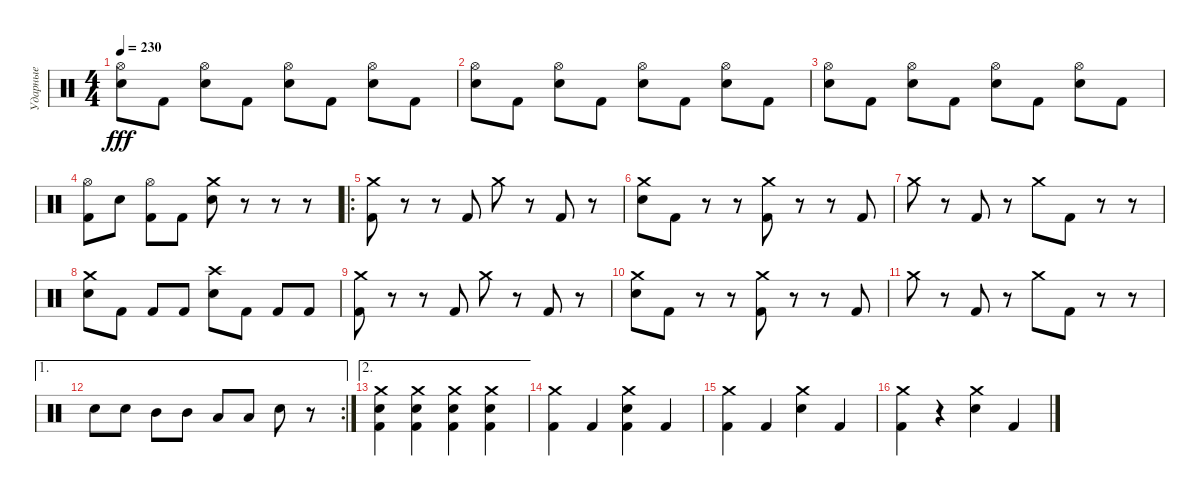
\track ("Ударные" "Ударные") {instrument percussion}
\staff {score}
\articulation defaults
\ts (4 4)
\tempo 230
\clef neutral
\ks c
("Electric Snare (hit)" "Hi-Hat (open)").8{dy fff} "Kick (hit) 2".8 ("Electric Snare (hit)" "Hi-Hat (open)").8 "Kick (hit) 2".8 ("Electric Snare (hit)" "Hi-Hat (open)").8 "Kick (hit) 2".8 ("Electric Snare (hit)" "Hi-Hat (open)").8 "Kick (hit) 2".8 |
("Electric Snare (hit)" "Hi-Hat (open)").8 "Kick (hit) 2".8 ("Electric Snare (hit)" "Hi-Hat (open)").8 "Kick (hit) 2".8 ("Electric Snare (hit)" "Hi-Hat (open)").8 "Kick (hit) 2".8 ("Electric Snare (hit)" "Hi-Hat (open)").8 "Kick (hit) 2".8 |
("Electric Snare (hit)" "Hi-Hat (open)").8 "Kick (hit) 2".8 ("Electric Snare (hit)" "Hi-Hat (open)").8 "Kick (hit) 2".8 ("Electric Snare (hit)" "Hi-Hat (open)").8 "Kick (hit) 2".8 ("Electric Snare (hit)" "Hi-Hat (open)").8 "Kick (hit) 2".8 |
("Kick (hit) 2" "Hi-Hat (open)").8 "Electric Snare (hit)".8 ("Kick (hit) 2" "Hi-Hat (open)").8 "Kick (hit) 2".8 ("Electric Snare (hit)" "Crash medium (hit)").8 r.8 r.8 r.8 |
\ro
("Kick (hit) 2" "Crash medium (hit)").8 r.8 r.8 "Kick (hit) 2".8 "Crash medium (hit)".8 r.8 "Kick (hit) 2".8 r.8 |
("Electric Snare (hit)" "Crash medium (hit)").8 "Kick (hit) 2".8 r.8 r.8 ("Kick (hit) 2" "Crash medium (hit)").8 r.8 r.8 "Kick (hit) 2".8 |
"Crash medium (hit)".8 r.8 "Kick (hit) 2".8 r.8 "Crash medium (hit)".8 "Kick (hit) 2".8 r.8 r.8 |
("Electric Snare (hit)" "Crash medium (hit)").8 "Kick (hit) 2".8 "Kick (hit) 2".8 "Kick (hit) 2".8 ("Electric Snare (hit)" "Crash high (hit)").8 "Kick (hit) 2".8 "Kick (hit) 2".8 "Kick (hit) 2".8 |
("Kick (hit) 2" "Crash medium (hit)").8 r.8 r.8 "Kick (hit) 2".8 "Crash medium (hit)".8 r.8 "Kick (hit) 2".8 r.8 |
("Electric Snare (hit)" "Crash medium (hit)").8 "Kick (hit) 2".8 r.8 r.8 ("Kick (hit) 2" "Crash medium (hit)").8 r.8 r.8 "Kick (hit) 2".8 |
"Crash medium (hit)".8 r.8 "Kick (hit) 2".8 r.8 "Crash medium (hit)".8 "Kick (hit) 2".8 r.8 r.8 |
\ae 1
\rc 2 "Electric Snare (hit)".8 "Electric Snare (hit)".8 "Mid Tom (hit)".8 "Mid Tom (hit)".8 "Low Tom (hit)".8 "Low Tom (hit)".8 "Electric Snare (hit)".8
r.8 |
\ae 2
("Kick (hit) 2" "Electric Snare (hit)" "Crash medium (hit)").4 ("Kick (hit) 2" "Electric Snare (hit)" "Crash medium (hit)").4 ("Kick (hit) 2" "Electric Snare (hit)" "Crash medium (hit)").4 ("Kick (hit) 2" "Electric Snare (hit)" "Crash medium (hit)").4 |
("Kick (hit) 2" "Crash medium (hit)").4 "Kick (hit) 2".4 ("Kick (hit) 2" "Electric Snare (hit)" "Crash medium (hit)").4 "Kick (hit) 2".4 |
("Kick (hit) 2" "Crash medium (hit)").4 "Kick (hit) 2".4 ("Electric Snare (hit)" "Crash medium (hit)").4 "Kick (hit) 2".4 |
("Kick (hit) 2" "Crash medium (hit)").4 r.4 ("Electric Snare (hit)" "Crash medium (hit)").4 "Kick (hit) 2".4
